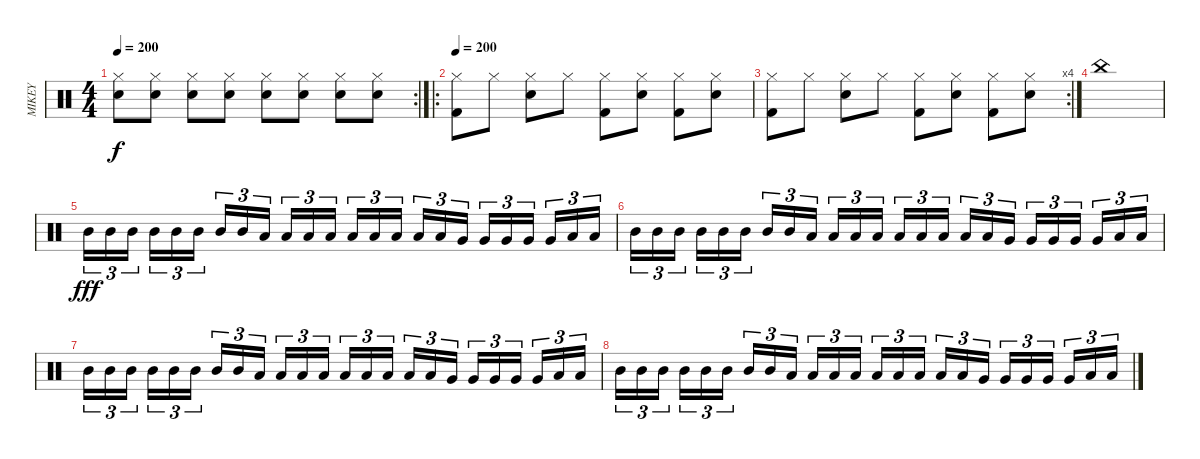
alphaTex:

\track ("MIKEY" "MIKEY") {instrument percussion}
\staff {score}
\articulation defaults
\rc 2
\ts (4 4)
\tempo 200
\clef neutral
\ks c
("Snare (hit) 2" "Hi-Hat (closed)").8{dy f} ("Snare (hit) 2" "Hi-Hat (closed)").8 ("Snare (hit) 2" "Hi-Hat (closed)").8 ("Snare (hit) 2" "Hi-Hat (closed)").8 ("Snare (hit) 2" "Hi-Hat (closed)").8 ("Snare (hit) 2" "Hi-Hat (closed)").8 ("Snare (hit) 2" "Hi-Hat (closed)").8 ("Snare (hit) 2" "Hi-Hat (closed)").8 |
\ro
\tempo 200
("Kick (hit) 2" "Hi-Hat (closed)").8 "Hi-Hat (closed)".8 ("Snare (hit) 2" "Hi-Hat (closed)").8 "Hi-Hat (closed)".8 ("Kick (hit) 2" "Hi-Hat (closed)").8 ("Snare (hit) 2" "Hi-Hat (closed)").8 ("Kick (hit) 2" "Hi-Hat (closed)").8 ("Snare (hit) 2" "Hi-Hat (closed)").8 |
\rc 4
("Kick (hit) 2" "Hi-Hat (closed)").8 "Hi-Hat (closed)".8 ("Snare (hit) 2" "Hi-Hat (closed)").8 "Hi-Hat (closed)".8 ("Kick (hit) 2" "Hi-Hat (closed)").8 ("Snare (hit) 2" "Hi-Hat (closed)").8 ("Kick (hit) 2" "Hi-Hat (closed)").8 ("Snare (hit) 2" "Hi-Hat (closed)").8 |
"China (hit)".1 |
"Mid Tom (hit)".16{tu (3 2) dy fff} "Mid Tom (hit)".16{tu (3 2)} "Mid Tom (hit)".16{tu (3 2)} "Mid Tom (hit)".16{tu (3 2)} "Mid Tom (hit)".16{tu (3 2)} "Mid Tom (hit)".16{tu (3 2)} "Mid Tom (hit)".16{tu (3 2)} "Mid Tom (hit)".16{tu (3 2)} "Low Tom (hit)".16{tu (3 2)} "Low Tom (hit)".16{tu (3 2)} "Low Tom (hit)".16{tu (3 2)} "Low Tom (hit)".16{tu (3 2)} "Low Tom (hit)".16{tu (3 2)} "Low Tom (hit)".16{tu (3 2)} "Low Tom (hit)".16{tu (3 2)} "Low Tom (hit)".16{tu (3 2)} "Low Tom (hit)".16{tu (3 2)} "Very Low Tom (hit)".16{tu (3 2)} "Very Low Tom (hit)".16{tu (3 2)} "Very Low Tom (hit)".16{tu (3 2)} "Very Low Tom (hit)".16{tu (3 2)} "Very Low Tom (hit)".16{tu (3 2)} "Low Floor Tom (hit)".16{tu (3 2)} "Low Floor Tom (hit)".16{tu (3 2)} |
"Mid Tom (hit)".16{tu (3 2)} "Mid Tom (hit)".16{tu (3 2)} "Mid Tom (hit)".16{tu (3 2)} "Mid Tom (hit)".16{tu (3 2)} "Mid Tom (hit)".16{tu (3 2)} "Mid Tom (hit)".16{tu (3 2)} "Mid Tom (hit)".16{tu (3 2)} "Mid Tom (hit)".16{tu (3 2)} "Low Tom (hit)".16{tu (3 2)} "Low Tom (hit)".16{tu (3 2)} "Low Tom (hit)".16{tu (3 2)} "Low Tom (hit)".16{tu (3 2)} "Low Tom (hit)".16{tu (3 2)} "Low Tom (hit)".16{tu (3 2)} "Low Tom (hit)".16{tu (3 2)} "Low Tom (hit)".16{tu (3 2)} "Low Tom (hit)".16{tu (3 2)} "Very Low Tom (hit)".16{tu (3 2)} "Very Low Tom (hit)".16{tu (3 2)} "Very Low Tom (hit)".16{tu (3 2)} "Very Low Tom (hit)".16{tu (3 2)} "Very Low Tom (hit)".16{tu (3 2)} "Low Floor Tom (hit)".16{tu (3 2)} "Low Floor Tom (hit)".16{tu (3 2)} |
"Mid Tom (hit)".16{tu (3 2)} "Mid Tom (hit)".16{tu (3 2)} "Mid Tom (hit)".16{tu (3 2)} "Mid Tom (hit)".16{tu (3 2)} "Mid Tom (hit)".16{tu (3 2)} "Mid Tom (hit)".16{tu (3 2)} "Mid Tom (hit)".16{tu (3 2)} "Mid Tom (hit)".16{tu (3 2)} "Low Tom (hit)".16{tu (3 2)} "Low Tom (hit)".16{tu (3 2)} "Low Tom (hit)".16{tu (3 2)} "Low Tom (hit)".16{tu (3 2)} "Low Tom (hit)".16{tu (3 2)} "Low Tom (hit)".16{tu (3 2)} "Low Tom (hit)".16{tu (3 2)} "Low Tom (hit)".16{tu (3 2)} "Low Tom (hit)".16{tu (3 2)} "Very Low Tom (hit)".16{tu (3 2)} "Very Low Tom (hit)".16{tu (3 2)} "Very Low Tom (hit)".16{tu (3 2)} "Very Low Tom (hit)".16{tu (3 2)} "Very Low Tom (hit)".16{tu (3 2)} "Low Floor Tom (hit)".16{tu (3 2)} "Low Floor Tom (hit)".16{tu (3 2)} |
"Mid Tom (hit)".16{tu (3 2)} "Mid Tom (hit)".16{tu (3 2)} "Mid Tom (hit)".16{tu (3 2)} "Mid Tom (hit)".16{tu (3 2)} "Mid Tom (hit)".16{tu (3 2)} "Mid Tom (hit)".16{tu (3 2)} "Mid Tom (hit)".16{tu (3 2)} "Mid Tom (hit)".16{tu (3 2)} "Low Tom (hit)".16{tu (3 2)} "Low Tom (hit)".16{tu (3 2)} "Low Tom (hit)".16{tu (3 2)} "Low Tom (hit)".16{tu (3 2)} "Low Tom (hit)".16{tu (3 2)} "Low Tom (hit)".16{tu (3 2)} "Low Tom (hit)".16{tu (3 2)} "Low Tom (hit)".16{tu (3 2)} "Low Tom (hit)".16{tu (3 2)} "Very Low Tom (hit)".16{tu (3 2)} "Very Low Tom (hit)".16{tu (3 2)} "Very Low Tom (hit)".16{tu (3 2)} "Very Low Tom (hit)".16{tu (3 2)} "Very Low Tom (hit)".16{tu (3 2)} "Low Floor Tom (hit)".16{tu (3 2)} "Low Floor Tom (hit)".16{tu (3 2)}
